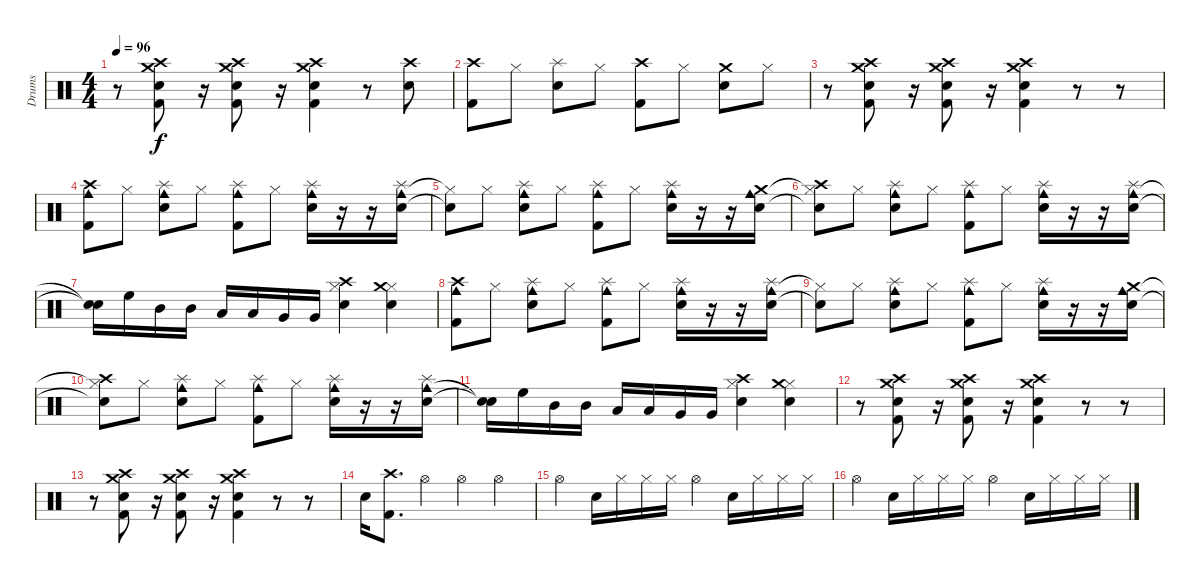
\track ("Drums" "Drums") {instrument percussion}
\staff {score}
\articulation defaults
\ts (4 4)
\tempo 96
\clef neutral
\ks c
r.8{dy f} ("Snare (hit) 2" "Kick (hit) 2" "Crash high (hit)" "Crash medium (hit)").8 r.16 ("Snare (hit) 2" "Kick (hit) 2" "Crash high (hit)" "Crash medium (hit)").8 r.16 ("Snare (hit) 2" "Kick (hit) 2" "Crash high (hit)" "Crash medium (hit)").4 r.8 ("Snare (hit) 2" "Crash high (hit)").8 |
("Kick (hit) 2" "Crash high (hit)").8 "Hi-Hat (closed)".8 ("Snare (hit) 2" "Splash (hit)").8 "Hi-Hat (closed)".8 ("Kick (hit) 2" "Crash high (hit)").8 "Hi-Hat (closed)".8 ("Snare (hit) 2" "Crash medium (hit)").8 "Hi-Hat (closed)".8 |
r.8 ("Snare (hit) 2" "Kick (hit) 2" "Crash high (hit)" "Crash medium (hit)").8 r.16 ("Snare (hit) 2" "Kick (hit) 2" "Crash high (hit)" "Crash medium (hit)").8 r.16 ("Snare (hit) 2" "Kick (hit) 2" "Crash high (hit)" "Crash medium (hit)").4 r.8 r.8 |
("Kick (hit) 2" "Cowbell medium (hit)" "Crash high (hit)").8 "Hi-Hat (closed)".8 ("Snare (hit) 2" "Cowbell medium (hit)" "Splash (hit)").8 "Hi-Hat (closed)".8 ("Kick (hit) 2" "Cowbell medium (hit)" "Splash (hit)").8 "Hi-Hat (closed)".8 ("Snare (hit) 2" "Cowbell medium (hit)" "Splash (hit)").16 r.16 r.16 ("Snare (hit) 2" "Cowbell medium (hit)" "Splash (hit)").16 |
("Snare (hit) 2"{t} "Hi-Hat (closed)"{t}).8 "Hi-Hat (closed)".8 ("Snare (hit) 2" "Cowbell medium (hit)" "Splash (hit)").8 "Hi-Hat (closed)".8 ("Kick (hit) 2" "Cowbell medium (hit)" "Splash (hit)").8 "Hi-Hat (closed)".8 ("Snare (hit) 2" "Cowbell medium (hit)" "Splash (hit)").16 r.16 r.16 ("Snare (hit) 2" "Cowbell medium (hit)" "Crash medium (hit)").16 |
("Snare (hit) 2"{t} "Hi-Hat (closed)"{t} "Crash high (hit)").8 "Hi-Hat (closed)".8 ("Snare (hit) 2" "Cowbell medium (hit)" "Splash (hit)").8 "Hi-Hat (closed)".8 ("Kick (hit) 2" "Cowbell medium (hit)" "Splash (hit)").8 "Hi-Hat (closed)".8 ("Snare (hit) 2" "Cowbell medium (hit)" "Splash (hit)").16 r.16 r.16 ("Snare (hit) 2" "Cowbell medium (hit)" "Splash (hit)").16 |
("Snare (hit)"{t} "Snare (hit)"{t}).16 "High Floor Tom (hit)".16 "Mid Tom (hit)".16 "Mid Tom (hit)".16 "Low Tom (hit)".16 "Low Tom (hit)".16 "Very Low Tom (hit)".16 "Very Low Tom (hit)".16 ("Snare (hit) 2" "Hi-Hat (closed)" "Crash high (hit)").4 ("Snare (hit) 2" "Hi-Hat (closed)" "Crash medium (hit)").4 |
("Kick (hit) 2" "Cowbell medium (hit)" "Crash high (hit)").8 "Hi-Hat (closed)".8 ("Snare (hit) 2" "Cowbell medium (hit)" "Splash (hit)").8 "Hi-Hat (closed)".8 ("Kick (hit) 2" "Cowbell medium (hit)" "Splash (hit)").8 "Hi-Hat (closed)".8 ("Snare (hit) 2" "Cowbell medium (hit)" "Splash (hit)").16 r.16 r.16 ("Snare (hit) 2" "Cowbell medium (hit)" "Splash (hit)").16 |
("Snare (hit) 2"{t} "Hi-Hat (closed)"{t}).8 "Hi-Hat (closed)".8 ("Snare (hit) 2" "Cowbell medium (hit)" "Splash (hit)").8 "Hi-Hat (closed)".8 ("Kick (hit) 2" "Cowbell medium (hit)" "Splash (hit)").8 "Hi-Hat (closed)".8 ("Snare (hit) 2" "Cowbell medium (hit)" "Splash (hit)").16 r.16 r.16 ("Snare (hit) 2" "Cowbell medium (hit)" "Crash medium (hit)").16 |
("Snare (hit) 2"{t} "Hi-Hat (closed)"{t} "Crash high (hit)").8 "Hi-Hat (closed)".8 ("Snare (hit) 2" "Cowbell medium (hit)" "Splash (hit)").8 "Hi-Hat (closed)".8 ("Kick (hit) 2" "Cowbell medium (hit)" "Splash (hit)").8 "Hi-Hat (closed)".8 ("Snare (hit) 2" "Cowbell medium (hit)" "Splash (hit)").16 r.16 r.16 ("Snare (hit) 2" "Cowbell medium (hit)" "Splash (hit)").16 |
("Snare (hit)"{t} "Snare (hit)"{t}).16 "High Floor Tom (hit)".16 "Mid Tom (hit)".16 "Mid Tom (hit)".16 "Low Tom (hit)".16 "Low Tom (hit)".16 "Very Low Tom (hit)".16 "Very Low Tom (hit)".16 ("Snare (hit) 2" "Hi-Hat (closed)" "Crash high (hit)").4 ("Snare (hit) 2" "Hi-Hat (closed)" "Crash medium (hit)").4 |
r.8 ("Snare (hit) 2" "Kick (hit) 2" "Crash high (hit)" "Crash medium (hit)").8 r.16 ("Snare (hit) 2" "Kick (hit) 2" "Crash high (hit)" "Crash medium (hit)").8 r.16 ("Snare (hit) 2" "Kick (hit) 2" "Crash high (hit)" "Crash medium (hit)").4 r.8 r.8 |
r.8 ("Snare (hit) 2" "Kick (hit) 2" "Crash high (hit)" "Crash medium (hit)").8 r.16 ("Snare (hit) 2" "Kick (hit) 2" "Crash high (hit)" "Crash medium (hit)").8 r.16 ("Snare (hit) 2" "Kick (hit) 2" "Crash high (hit)" "Crash medium (hit)").4 r.8 r.8 |
"Snare (hit) 2".16 ("Kick (hit) 2" "Crash high (hit)").8{d} "Hi-Hat (open)".4 "Hi-Hat (open)".4 "Hi-Hat (open)".4 |
"Hi-Hat (open)".4 "Snare (hit) 2".16 "Hi-Hat (closed)".16 "Hi-Hat (closed)".16 "Hi-Hat (closed)".16 "Hi-Hat (open)".4 "Snare (hit) 2".16 "Hi-Hat (closed)".16 "Hi-Hat (closed)".16 "Hi-Hat (closed)".16 |
"Hi-Hat (open)".4 "Snare (hit) 2".16 "Hi-Hat (closed)".16 "Hi-Hat (closed)".16 "Hi-Hat (closed)".16 "Hi-Hat (open)".4 "Snare (hit) 2".16 "Hi-Hat (closed)".16 "Hi-Hat (closed)".16 "Hi-Hat (closed)".16
